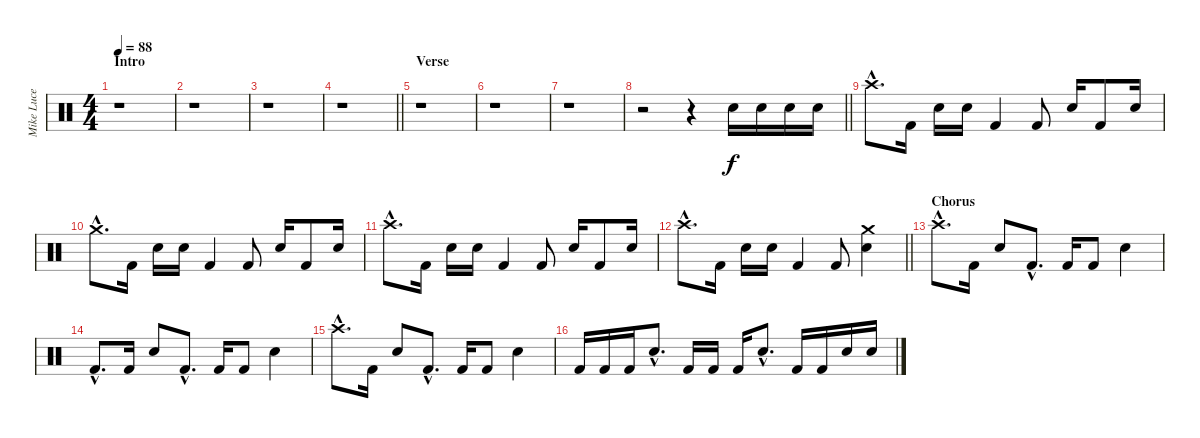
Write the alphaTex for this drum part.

\track ("Mike Luce (Drums)" "Mike Luce ") {instrument percussion}
\staff {score}
\articulation defaults
\ts (4 4)
\section ("" "Intro")
\tempo 88
\clef neutral
\ks c
r.1{dy f} |
r.1 |
r.1 |
\barLineRight lightlight
r.1 |
\section ("" "Verse")
r.1 |
r.1 |
r.1 |
\barLineRight lightlight
r.2 r.4 "Electric Snare (hit)".16 "Electric Snare (hit)".16 "Electric Snare (hit)".16 "Electric Snare (hit)".16 |
"Crash high (hit)"{hac}.8{d} "Kick (hit) 2".16 "Electric Snare (hit)".16 "Electric Snare (hit)".16 "Kick (hit) 2".4 "Kick (hit) 2".8 "Electric Snare (hit)".16 "Kick (hit) 2".8 "Electric Snare (hit)".16 |
"Crash medium (hit)"{hac}.8{d} "Kick (hit) 2".16 "Electric Snare (hit)".16 "Electric Snare (hit)".16 "Kick (hit) 2".4 "Kick (hit) 2".8 "Electric Snare (hit)".16 "Kick (hit) 2".8 "Electric Snare (hit)".16 |
"Crash high (hit)"{hac}.8{d} "Kick (hit) 2".16 "Electric Snare (hit)".16 "Electric Snare (hit)".16 "Kick (hit) 2".4 "Kick (hit) 2".8 "Electric Snare (hit)".16 "Kick (hit) 2".8 "Electric Snare (hit)".16 |
\barLineRight lightlight "Crash high (hit)"{hac}.8{d} "Kick (hit) 2".16 "Electric Snare (hit)".16 "Electric Snare (hit)".16 "Kick (hit) 2".4 "Kick (hit) 2".8
("Crash medium (hit)" "Electric Snare (hit)").4 |
\section ("" "Chorus")
"Crash high (hit)"{hac}.8{d} "Kick (hit) 2".16 "Electric Snare (hit)".8 "Kick (hit) 2"{hac}.8{d} "Kick (hit) 2".16 "Kick (hit) 2".8 "Electric Snare (hit)".4 |
"Kick (hit) 2"{hac}.8{d} "Kick (hit) 2".16 "Electric Snare (hit)".8 "Kick (hit) 2"{hac}.8{d} "Kick (hit) 2".16 "Kick (hit) 2".8 "Electric Snare (hit)".4 |
"Crash high (hit)"{hac}.8{d} "Kick (hit) 2".16 "Electric Snare (hit)".8 "Kick (hit) 2"{hac}.8{d} "Kick (hit) 2".16 "Kick (hit) 2".8 "Electric Snare (hit)".4 |
"Kick (hit) 2".16 "Kick (hit) 2".16 "Kick (hit) 2".16 "Electric Snare (hit)"{hac}.8{d} "Kick (hit) 2".16 "Kick (hit) 2".16 "Kick (hit) 2".16 "Electric Snare (hit)"{hac}.8{d} "Kick (hit) 2".16 "Kick (hit) 2".16 "Electric Snare (hit)".16 "Electric Snare (hit)".16
